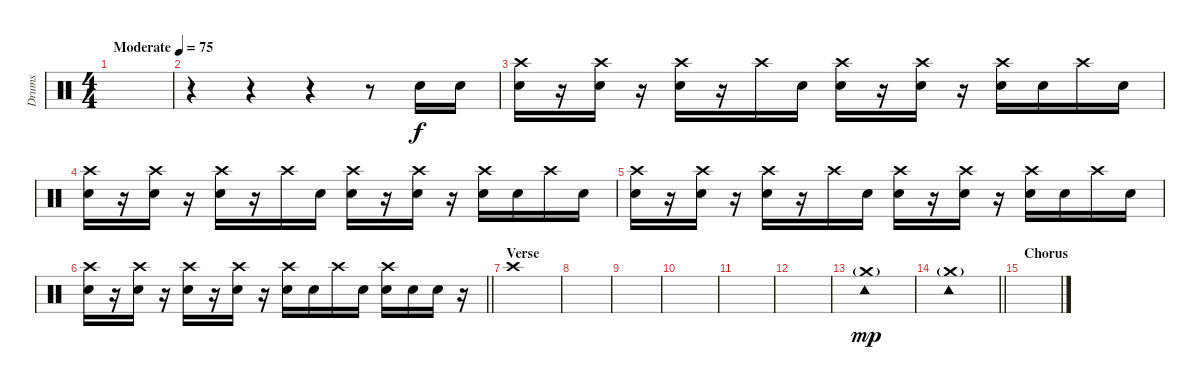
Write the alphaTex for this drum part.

\track ("Drums" "Drums") {instrument percussion}
\staff {score}
\articulation defaults
\ts (4 4)
\tempo (75 "Moderate")
\clef neutral
\ks c
|
r.4 r.4 r.4 r.8 "Snare (hit) 2".16 "Electric Snare (hit)".16 |
("Crash high (hit)" "Electric Snare (hit)").16 r.16 ("Crash high (hit)" "Electric Snare (hit)").16 r.16 ("Crash high (hit)" "Electric Snare (hit)").16 r.16 "Crash high (hit)".16 "Snare (hit) 2".16 ("Crash high (hit)" "Electric Snare (hit)").16 r.16 ("Crash high (hit)" "Electric Snare (hit)").16 r.16 ("Crash high (hit)" "Electric Snare (hit)").16 "Snare (hit) 2".16 "Crash high (hit)".16 "Snare (hit) 2".16 |
("Crash high (hit)" "Electric Snare (hit)").16 r.16 ("Crash high (hit)" "Electric Snare (hit)").16 r.16 ("Crash high (hit)" "Electric Snare (hit)").16 r.16 "Crash high (hit)".16 "Snare (hit) 2".16 ("Crash high (hit)" "Electric Snare (hit)").16 r.16 ("Crash high (hit)" "Electric Snare (hit)").16 r.16 ("Crash high (hit)" "Electric Snare (hit)").16 "Snare (hit) 2".16 "Crash high (hit)".16 "Snare (hit) 2".16 |
("Crash high (hit)" "Electric Snare (hit)").16 r.16 ("Crash high (hit)" "Electric Snare (hit)").16 r.16 ("Crash high (hit)" "Electric Snare (hit)").16 r.16 "Crash high (hit)".16 "Snare (hit) 2".16 ("Crash high (hit)" "Electric Snare (hit)").16 r.16 ("Crash high (hit)" "Electric Snare (hit)").16 r.16 ("Crash high (hit)" "Electric Snare (hit)").16 "Snare (hit) 2".16 "Crash high (hit)".16 "Snare (hit) 2".16 |
\barLineRight lightlight
("Crash high (hit)" "Electric Snare (hit)").16 r.16 ("Crash high (hit)" "Electric Snare (hit)").16 r.16 ("Crash high (hit)" "Electric Snare (hit)").16 r.16 ("Crash high (hit)" "Electric Snare (hit)").16 r.16 ("Crash high (hit)" "Snare (hit) 2").16 "Electric Snare (hit)".16 "Crash high (hit)".16 "Snare (hit) 2".16 ("Crash high (hit)" "Electric Snare (hit)").16 "Electric Snare (hit)".16 "Snare (hit) 2".16 r.16 |
\section ("" "Verse")
"Crash high (hit)".1 |
|
|
|
|
|
("Crash medium (hit)"{g} "Tambourine (hit)").1{dy mp} |
\barLineRight lightlight
("Crash medium (hit)"{g} "Tambourine (hit)").1 |
\section ("" "Chorus")
